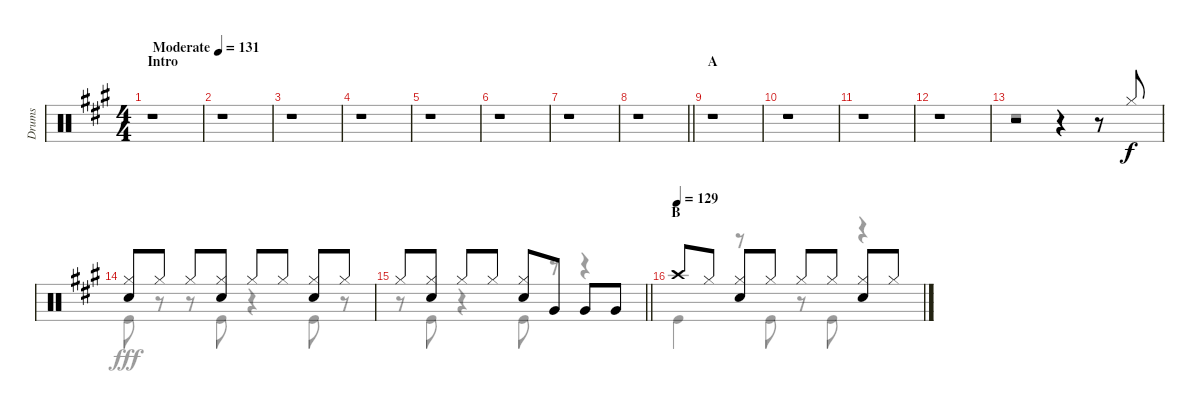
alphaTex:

\track ("Drums" "Drums") {instrument percussion}
\staff {score}
\articulation defaults
\voice
\ts (4 4)
\section ("" "Intro")
\tempo (131 "Moderate")
\clef neutral
\ks a
r.1{dy f} |
r.1 |
r.1 |
r.1 |
r.1 |
r.1 |
r.1 |
\barLineRight lightlight
r.1 |
\section ("" "A")
r.1 |
r.1 |
r.1 |
r.1 |
r.2 r.4 r.8 "Hi-Hat (closed)".8 |
("Hi-Hat (closed)" "Snare (hit) 2").8 "Hi-Hat (closed)".8 "Hi-Hat (closed)".8 ("Hi-Hat (closed)" "Snare (hit) 2").8 "Hi-Hat (closed)".8 "Hi-Hat (closed)".8 ("Hi-Hat (closed)" "Snare (hit) 2").8 "Hi-Hat (closed)".8 |
\barLineRight lightlight "Hi-Hat (closed)".8
("Hi-Hat (closed)" "Snare (hit) 2").8 "Hi-Hat (closed)".8 "Hi-Hat (closed)".8 ("Hi-Hat (closed)" "Snare (hit) 2").8 "Very Low Tom (hit)".8 "Very Low Tom (hit)".8 "Very Low Tom (hit)".8 |
\section ("" "B")
\tempo (129)
"Crash high (hit)".8 "Hi-Hat (closed)".8 ("Hi-Hat (closed)" "Snare (hit) 2").8 "Hi-Hat (closed)".8 "Hi-Hat (closed)".8 "Hi-Hat (closed)".8 ("Hi-Hat (closed)" "Snare (hit) 2").8 "Hi-Hat (closed)".8
\voice
\clef neutral
\ottava regular
\simile none
\ks a
r.1{dy fff} |
r.1 |
r.1 |
r.1 |
r.1 |
r.1 |
r.1 |
\barLineRight lightlight
r.1 |
r.1 |
r.1 |
r.1 |
r.1 |
r.1 |
"Kick (hit)".8 r.8 r.8 "Kick (hit)".8 r.4 "Kick (hit)".8 r.8 |
\barLineRight lightlight
r.8 "Kick (hit)".8 r.4 "Kick (hit)".8 r.8 r.4 |
"Kick (hit)".4 r.8 "Kick (hit)".8 r.8 "Kick (hit)".8 r.4
